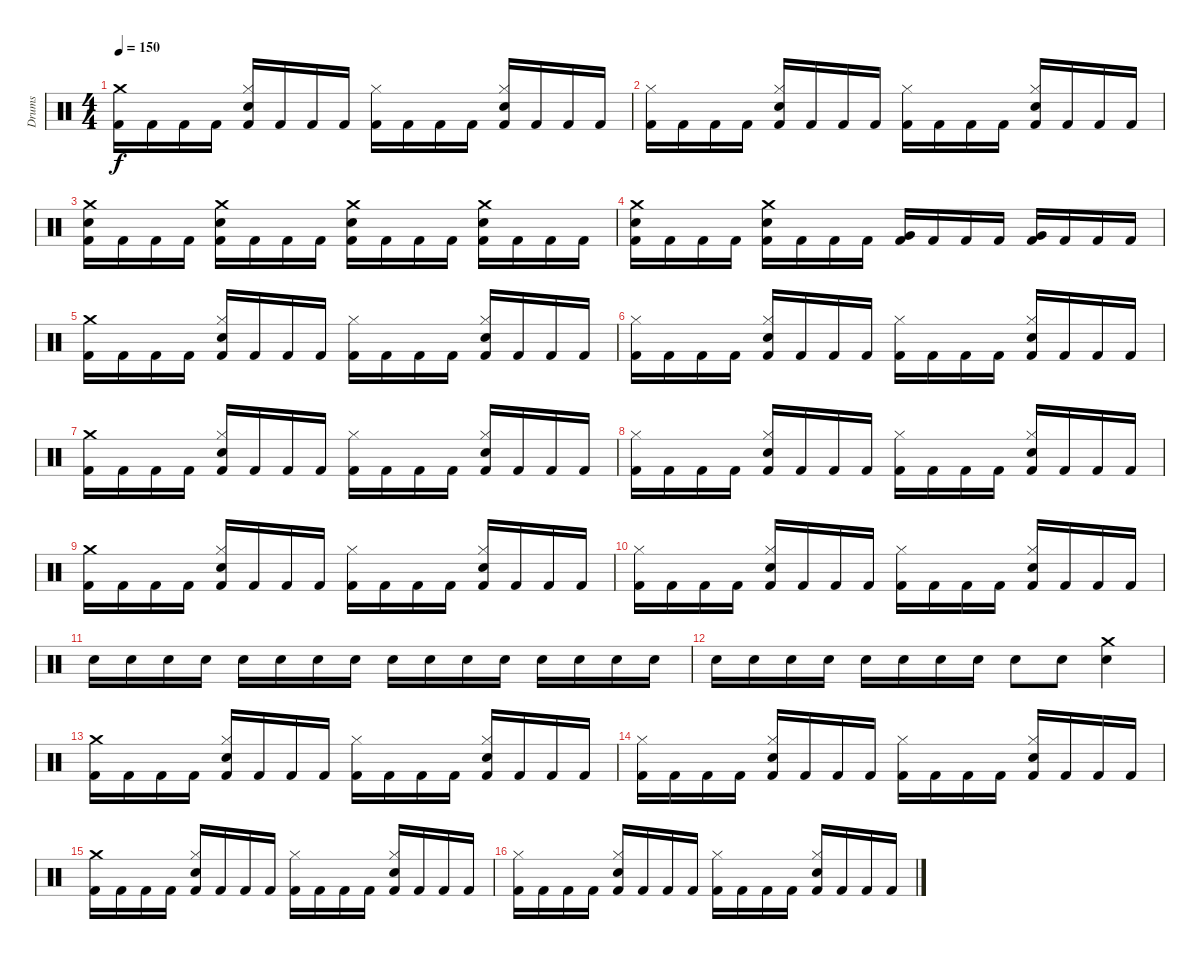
\track ("Drums" "Drums") {instrument percussion}
\staff {score}
\articulation defaults
\ts (4 4)
\tempo 150
\clef neutral
\ks c
("Crash medium (hit)" "Kick (hit) 2").16{dy f} "Kick (hit) 2".16 "Kick (hit) 2".16 "Kick (hit) 2".16 ("Hi-Hat (closed)" "Snare (hit) 2" "Kick (hit) 2").16 "Kick (hit) 2".16 "Kick (hit) 2".16 "Kick (hit) 2".16 ("Hi-Hat (closed)" "Kick (hit) 2").16 "Kick (hit) 2".16 "Kick (hit) 2".16 "Kick (hit) 2".16 ("Hi-Hat (closed)" "Snare (hit) 2" "Kick (hit) 2").16 "Kick (hit) 2".16 "Kick (hit) 2".16 "Kick (hit) 2".16 |
("Hi-Hat (closed)" "Kick (hit) 2").16 "Kick (hit) 2".16 "Kick (hit) 2".16 "Kick (hit) 2".16 ("Hi-Hat (closed)" "Snare (hit) 2" "Kick (hit) 2").16 "Kick (hit) 2".16 "Kick (hit) 2".16 "Kick (hit) 2".16 ("Hi-Hat (closed)" "Kick (hit) 2").16 "Kick (hit) 2".16 "Kick (hit) 2".16 "Kick (hit) 2".16 ("Hi-Hat (closed)" "Snare (hit) 2" "Kick (hit) 2").16 "Kick (hit) 2".16 "Kick (hit) 2".16 "Kick (hit) 2".16 |
("Crash medium (hit)" "Snare (hit) 2" "Kick (hit) 2").16 "Kick (hit) 2".16 "Kick (hit) 2".16 "Kick (hit) 2".16 ("Crash medium (hit)" "Snare (hit) 2" "Kick (hit) 2").16 "Kick (hit) 2".16 "Kick (hit) 2".16 "Kick (hit) 2".16 ("Crash medium (hit)" "Snare (hit) 2" "Kick (hit) 2").16 "Kick (hit) 2".16 "Kick (hit) 2".16 "Kick (hit) 2".16 ("Crash medium (hit)" "Snare (hit) 2" "Kick (hit) 2").16 "Kick (hit) 2".16 "Kick (hit) 2".16 "Kick (hit) 2".16 |
("Crash medium (hit)" "Snare (hit) 2" "Kick (hit) 2").16 "Kick (hit) 2".16 "Kick (hit) 2".16 "Kick (hit) 2".16 ("Crash medium (hit)" "Snare (hit) 2" "Kick (hit) 2").16 "Kick (hit) 2".16 "Kick (hit) 2".16 "Kick (hit) 2".16 ("Very Low Tom (hit)" "Kick (hit) 2").16 "Kick (hit) 2".16 "Kick (hit) 2".16 "Kick (hit) 2".16 ("Very Low Tom (hit)" "Kick (hit) 2").16 "Kick (hit) 2".16 "Kick (hit) 2".16 "Kick (hit) 2".16 |
("Crash medium (hit)" "Kick (hit) 2").16 "Kick (hit) 2".16 "Kick (hit) 2".16 "Kick (hit) 2".16 ("Hi-Hat (closed)" "Snare (hit) 2" "Kick (hit) 2").16 "Kick (hit) 2".16 "Kick (hit) 2".16 "Kick (hit) 2".16 ("Hi-Hat (closed)" "Kick (hit) 2").16 "Kick (hit) 2".16 "Kick (hit) 2".16 "Kick (hit) 2".16 ("Hi-Hat (closed)" "Snare (hit) 2" "Kick (hit) 2").16 "Kick (hit) 2".16 "Kick (hit) 2".16 "Kick (hit) 2".16 |
("Hi-Hat (closed)" "Kick (hit) 2").16 "Kick (hit) 2".16 "Kick (hit) 2".16 "Kick (hit) 2".16 ("Hi-Hat (closed)" "Snare (hit) 2" "Kick (hit) 2").16 "Kick (hit) 2".16 "Kick (hit) 2".16 "Kick (hit) 2".16 ("Hi-Hat (closed)" "Kick (hit) 2").16 "Kick (hit) 2".16 "Kick (hit) 2".16 "Kick (hit) 2".16 ("Hi-Hat (closed)" "Snare (hit) 2" "Kick (hit) 2").16 "Kick (hit) 2".16 "Kick (hit) 2".16 "Kick (hit) 2".16 |
("Crash medium (hit)" "Kick (hit) 2").16 "Kick (hit) 2".16 "Kick (hit) 2".16 "Kick (hit) 2".16 ("Hi-Hat (closed)" "Snare (hit) 2" "Kick (hit) 2").16 "Kick (hit) 2".16 "Kick (hit) 2".16 "Kick (hit) 2".16 ("Hi-Hat (closed)" "Kick (hit) 2").16 "Kick (hit) 2".16 "Kick (hit) 2".16 "Kick (hit) 2".16 ("Hi-Hat (closed)" "Snare (hit) 2" "Kick (hit) 2").16 "Kick (hit) 2".16 "Kick (hit) 2".16 "Kick (hit) 2".16 |
("Hi-Hat (closed)" "Kick (hit) 2").16 "Kick (hit) 2".16 "Kick (hit) 2".16 "Kick (hit) 2".16 ("Hi-Hat (closed)" "Snare (hit) 2" "Kick (hit) 2").16 "Kick (hit) 2".16 "Kick (hit) 2".16 "Kick (hit) 2".16 ("Hi-Hat (closed)" "Kick (hit) 2").16 "Kick (hit) 2".16 "Kick (hit) 2".16 "Kick (hit) 2".16 ("Hi-Hat (closed)" "Snare (hit) 2" "Kick (hit) 2").16 "Kick (hit) 2".16 "Kick (hit) 2".16 "Kick (hit) 2".16 |
("Crash medium (hit)" "Kick (hit) 2").16 "Kick (hit) 2".16 "Kick (hit) 2".16 "Kick (hit) 2".16 ("Hi-Hat (closed)" "Snare (hit) 2" "Kick (hit) 2").16 "Kick (hit) 2".16 "Kick (hit) 2".16 "Kick (hit) 2".16 ("Hi-Hat (closed)" "Kick (hit) 2").16 "Kick (hit) 2".16 "Kick (hit) 2".16 "Kick (hit) 2".16 ("Hi-Hat (closed)" "Snare (hit) 2" "Kick (hit) 2").16 "Kick (hit) 2".16 "Kick (hit) 2".16 "Kick (hit) 2".16 |
("Hi-Hat (closed)" "Kick (hit) 2").16 "Kick (hit) 2".16 "Kick (hit) 2".16 "Kick (hit) 2".16 ("Hi-Hat (closed)" "Snare (hit) 2" "Kick (hit) 2").16 "Kick (hit) 2".16 "Kick (hit) 2".16 "Kick (hit) 2".16 ("Hi-Hat (closed)" "Kick (hit) 2").16 "Kick (hit) 2".16 "Kick (hit) 2".16 "Kick (hit) 2".16 ("Hi-Hat (closed)" "Snare (hit) 2" "Kick (hit) 2").16 "Kick (hit) 2".16 "Kick (hit) 2".16 "Kick (hit) 2".16 |
"Snare (hit) 2".16 "Snare (hit) 2".16 "Snare (hit) 2".16 "Snare (hit) 2".16 "Snare (hit) 2".16 "Snare (hit) 2".16 "Snare (hit) 2".16 "Snare (hit) 2".16 "Snare (hit) 2".16 "Snare (hit) 2".16 "Snare (hit) 2".16 "Snare (hit) 2".16 "Snare (hit) 2".16 "Snare (hit) 2".16 "Snare (hit) 2".16 "Snare (hit) 2".16 |
"Snare (hit) 2".16 "Snare (hit) 2".16 "Snare (hit) 2".16 "Snare (hit) 2".16 "Snare (hit) 2".16 "Snare (hit) 2".16 "Snare (hit) 2".16 "Snare (hit) 2".16 "Snare (hit) 2".8 "Snare (hit) 2".8 ("Crash medium (hit)" "Snare (hit) 2").4 |
("Crash medium (hit)" "Kick (hit) 2").16 "Kick (hit) 2".16 "Kick (hit) 2".16 "Kick (hit) 2".16 ("Hi-Hat (closed)" "Snare (hit) 2" "Kick (hit) 2").16 "Kick (hit) 2".16 "Kick (hit) 2".16 "Kick (hit) 2".16 ("Hi-Hat (closed)" "Kick (hit) 2").16 "Kick (hit) 2".16 "Kick (hit) 2".16 "Kick (hit) 2".16 ("Hi-Hat (closed)" "Snare (hit) 2" "Kick (hit) 2").16 "Kick (hit) 2".16 "Kick (hit) 2".16 "Kick (hit) 2".16 |
("Hi-Hat (closed)" "Kick (hit) 2").16 "Kick (hit) 2".16 "Kick (hit) 2".16 "Kick (hit) 2".16 ("Hi-Hat (closed)" "Snare (hit) 2" "Kick (hit) 2").16 "Kick (hit) 2".16 "Kick (hit) 2".16 "Kick (hit) 2".16 ("Hi-Hat (closed)" "Kick (hit) 2").16 "Kick (hit) 2".16 "Kick (hit) 2".16 "Kick (hit) 2".16 ("Hi-Hat (closed)" "Snare (hit) 2" "Kick (hit) 2").16 "Kick (hit) 2".16 "Kick (hit) 2".16 "Kick (hit) 2".16 |
("Crash medium (hit)" "Kick (hit) 2").16 "Kick (hit) 2".16 "Kick (hit) 2".16 "Kick (hit) 2".16 ("Hi-Hat (closed)" "Snare (hit) 2" "Kick (hit) 2").16 "Kick (hit) 2".16 "Kick (hit) 2".16 "Kick (hit) 2".16 ("Hi-Hat (closed)" "Kick (hit) 2").16 "Kick (hit) 2".16 "Kick (hit) 2".16 "Kick (hit) 2".16 ("Hi-Hat (closed)" "Snare (hit) 2" "Kick (hit) 2").16 "Kick (hit) 2".16 "Kick (hit) 2".16 "Kick (hit) 2".16 |
("Hi-Hat (closed)" "Kick (hit) 2").16 "Kick (hit) 2".16 "Kick (hit) 2".16 "Kick (hit) 2".16 ("Hi-Hat (closed)" "Snare (hit) 2" "Kick (hit) 2").16 "Kick (hit) 2".16 "Kick (hit) 2".16 "Kick (hit) 2".16 ("Hi-Hat (closed)" "Kick (hit) 2").16 "Kick (hit) 2".16 "Kick (hit) 2".16 "Kick (hit) 2".16 ("Hi-Hat (closed)" "Snare (hit) 2" "Kick (hit) 2").16 "Kick (hit) 2".16 "Kick (hit) 2".16 "Kick (hit) 2".16
